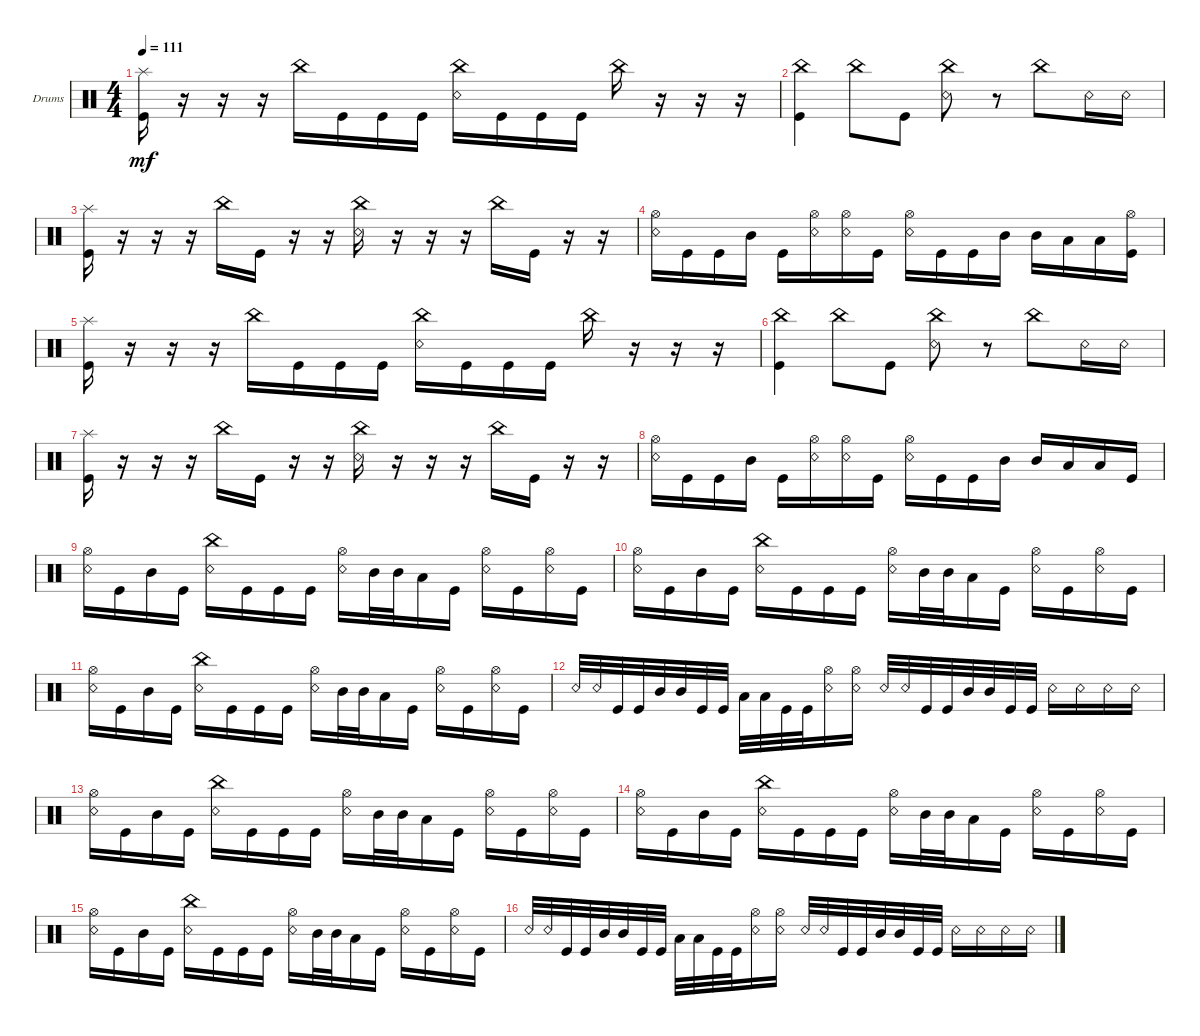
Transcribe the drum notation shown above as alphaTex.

\defaultSystemsLayout 4
\bracketExtendMode groupsimilarinstruments
\firstSystemTrackNameOrientation horizontal
\otherSystemsTrackNameOrientation horizontal
\track ("Drumkit" "Drums") {instrument percussion}
\staff {score}
\articulation defaults
\ts (4 4)
\tempo 111
\clef neutral
\ks c
("Kick (hit)" "Splash (hit)").16{dy mf} r.16 r.16 r.16 "China (hit)".16 "Kick (hit)".16 "Kick (hit)".16 "Kick (hit)".16 ("Snare (rim shot)" "China (hit)").16 "Kick (hit)".16 "Kick (hit)".16 "Kick (hit)".16 "China (hit)".16 r.16 r.16 r.16 |
("China (hit)" "Kick (hit)").4 "China (hit)".8 "Kick (hit)".8 ("Snare (rim shot)" "China (hit)").8 r.8 "China (hit)".8 "Snare (rim shot)".16 "Snare (rim shot)".16 |
("Kick (hit)" "Splash (hit)").16 r.16 r.16 r.16 "China (hit)".16 "Kick (hit)".16 r.16 r.16 ("Snare (rim shot)" "China (hit)").16 r.16 r.16 r.16 "China (hit)".16 "Kick (hit)".16 r.16 r.16 |
("Snare (rim shot)" "Hi-Hat (open)").16 "Kick (hit)".16 "Kick (hit)".16 "Mid Tom (hit)".16 "Kick (hit)".16 ("Snare (rim shot)" "Hi-Hat (open)").16 ("Snare (rim shot)" "Hi-Hat (open)").16 "Kick (hit)".16 ("Snare (rim shot)" "Hi-Hat (open)").16 "Kick (hit)".16 "Kick (hit)".16 "Mid Tom (hit)".16 "Mid Tom (hit)".16 "Low Tom (hit)".16 "Low Tom (hit)".16 ("Kick (hit)" "Hi-Hat (open)").16 |
("Kick (hit)" "Splash (hit)").16 r.16 r.16 r.16 "China (hit)".16 "Kick (hit)".16 "Kick (hit)".16 "Kick (hit)".16 ("Snare (rim shot)" "China (hit)").16 "Kick (hit)".16 "Kick (hit)".16 "Kick (hit)".16 "China (hit)".16 r.16 r.16 r.16 |
("China (hit)" "Kick (hit)").4 "China (hit)".8 "Kick (hit)".8 ("Snare (rim shot)" "China (hit)").8 r.8 "China (hit)".8 "Snare (rim shot)".16 "Snare (rim shot)".16 |
("Kick (hit)" "Splash (hit)").16 r.16 r.16 r.16 "China (hit)".16 "Kick (hit)".16 r.16 r.16 ("Snare (rim shot)" "China (hit)").16 r.16 r.16 r.16 "China (hit)".16 "Kick (hit)".16 r.16 r.16 |
("Snare (rim shot)" "Hi-Hat (open)").16 "Kick (hit)".16 "Kick (hit)".16 "Mid Tom (hit)".16 "Kick (hit)".16 ("Snare (rim shot)" "Hi-Hat (open)").16 ("Snare (rim shot)" "Hi-Hat (open)").16 "Kick (hit)".16 ("Snare (rim shot)" "Hi-Hat (open)").16 "Kick (hit)".16 "Kick (hit)".16 "Mid Tom (hit)".16 "Mid Tom (hit)".16 "Low Tom (hit)".16 "Low Tom (hit)".16 "Kick (hit)".16 |
("Snare (rim shot)" "Hi-Hat (open)").16 "Kick (hit)".16 "Mid Tom (hit)".16 "Kick (hit)".16 ("Snare (rim shot)" "China (hit)").16 "Kick (hit)".16 "Kick (hit)".16 "Kick (hit)".16 ("Snare (rim shot)" "Hi-Hat (open)").16 "Mid Tom (hit)".32 "Mid Tom (hit)".32 "Low Tom (hit)".16 "Kick (hit)".16 ("Snare (rim shot)" "Hi-Hat (open)").16 "Kick (hit)".16 ("Snare (rim shot)" "Hi-Hat (open)").16 "Kick (hit)".16 |
("Snare (rim shot)" "Hi-Hat (open)").16 "Kick (hit)".16 "Mid Tom (hit)".16 "Kick (hit)".16 ("Snare (rim shot)" "China (hit)").16 "Kick (hit)".16 "Kick (hit)".16 "Kick (hit)".16 ("Snare (rim shot)" "Hi-Hat (open)").16 "Mid Tom (hit)".32 "Mid Tom (hit)".32 "Low Tom (hit)".16 "Kick (hit)".16 ("Snare (rim shot)" "Hi-Hat (open)").16 "Kick (hit)".16 ("Snare (rim shot)" "Hi-Hat (open)").16 "Kick (hit)".16 |
("Snare (rim shot)" "Hi-Hat (open)").16 "Kick (hit)".16 "Mid Tom (hit)".16 "Kick (hit)".16 ("Snare (rim shot)" "China (hit)").16 "Kick (hit)".16 "Kick (hit)".16 "Kick (hit)".16 ("Snare (rim shot)" "Hi-Hat (open)").16 "Mid Tom (hit)".32 "Mid Tom (hit)".32 "Low Tom (hit)".16 "Kick (hit)".16 ("Snare (rim shot)" "Hi-Hat (open)").16 "Kick (hit)".16 ("Snare (rim shot)" "Hi-Hat (open)").16 "Kick (hit)".16 |
"Snare (rim shot)".32 "Snare (rim shot)".32 "Kick (hit)".32 "Kick (hit)".32 "Mid Tom (hit)".32 "Mid Tom (hit)".32 "Kick (hit)".32 "Kick (hit)".32 "Low Tom (hit)".32 "Low Tom (hit)".32 "Kick (hit)".32 "Kick (hit)".32 ("Snare (rim shot)" "Hi-Hat (open)").16 ("Snare (rim shot)" "Hi-Hat (open)").16 "Snare (rim shot)".32 "Snare (rim shot)".32 "Kick (hit)".32 "Kick (hit)".32 "Mid Tom (hit)".32 "Mid Tom (hit)".32 "Kick (hit)".32 "Kick (hit)".32 "Snare (rim shot)".16 "Snare (rim shot)".16 "Snare (rim shot)".16 "Snare (rim shot)".16 |
("Snare (rim shot)" "Hi-Hat (open)").16 "Kick (hit)".16 "Mid Tom (hit)".16 "Kick (hit)".16 ("Snare (rim shot)" "China (hit)").16 "Kick (hit)".16 "Kick (hit)".16 "Kick (hit)".16 ("Snare (rim shot)" "Hi-Hat (open)").16 "Mid Tom (hit)".32 "Mid Tom (hit)".32 "Low Tom (hit)".16 "Kick (hit)".16 ("Snare (rim shot)" "Hi-Hat (open)").16 "Kick (hit)".16 ("Snare (rim shot)" "Hi-Hat (open)").16 "Kick (hit)".16 |
("Snare (rim shot)" "Hi-Hat (open)").16 "Kick (hit)".16 "Mid Tom (hit)".16 "Kick (hit)".16 ("Snare (rim shot)" "China (hit)").16 "Kick (hit)".16 "Kick (hit)".16 "Kick (hit)".16 ("Snare (rim shot)" "Hi-Hat (open)").16 "Mid Tom (hit)".32 "Mid Tom (hit)".32 "Low Tom (hit)".16 "Kick (hit)".16 ("Snare (rim shot)" "Hi-Hat (open)").16 "Kick (hit)".16 ("Snare (rim shot)" "Hi-Hat (open)").16 "Kick (hit)".16 |
("Snare (rim shot)" "Hi-Hat (open)").16 "Kick (hit)".16 "Mid Tom (hit)".16 "Kick (hit)".16 ("Snare (rim shot)" "China (hit)").16 "Kick (hit)".16 "Kick (hit)".16 "Kick (hit)".16 ("Snare (rim shot)" "Hi-Hat (open)").16 "Mid Tom (hit)".32 "Mid Tom (hit)".32 "Low Tom (hit)".16 "Kick (hit)".16 ("Snare (rim shot)" "Hi-Hat (open)").16 "Kick (hit)".16 ("Snare (rim shot)" "Hi-Hat (open)").16 "Kick (hit)".16 |
"Snare (rim shot)".32 "Snare (rim shot)".32 "Kick (hit)".32 "Kick (hit)".32 "Mid Tom (hit)".32 "Mid Tom (hit)".32 "Kick (hit)".32 "Kick (hit)".32 "Low Tom (hit)".32 "Low Tom (hit)".32 "Kick (hit)".32 "Kick (hit)".32 ("Snare (rim shot)" "Hi-Hat (open)").16 ("Snare (rim shot)" "Hi-Hat (open)").16 "Snare (rim shot)".32 "Snare (rim shot)".32 "Kick (hit)".32 "Kick (hit)".32 "Mid Tom (hit)".32 "Mid Tom (hit)".32 "Kick (hit)".32 "Kick (hit)".32 "Snare (rim shot)".16 "Snare (rim shot)".16 "Snare (rim shot)".16 "Snare (rim shot)".16
